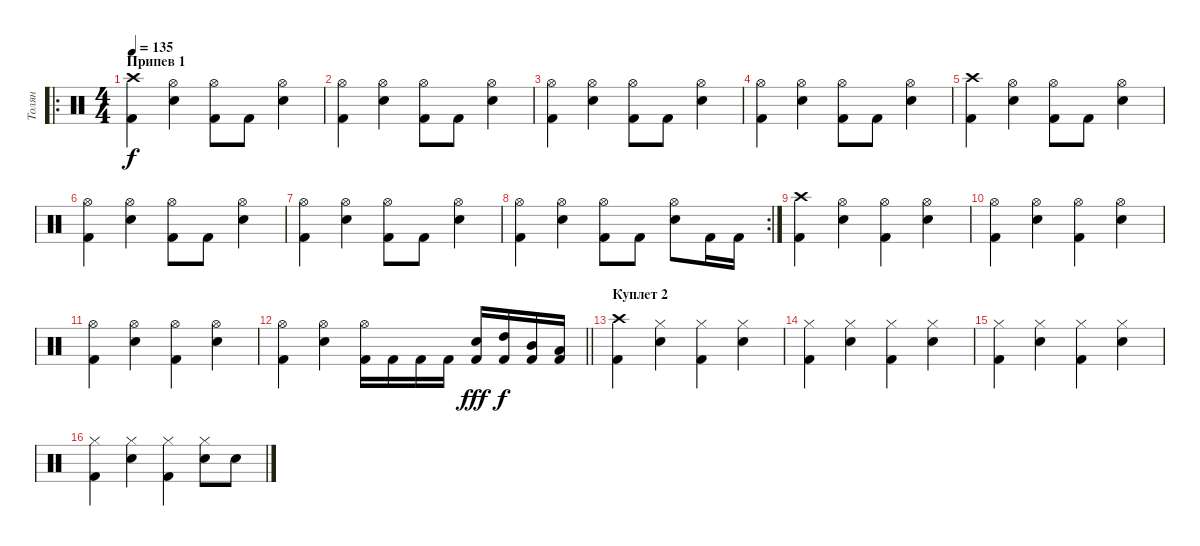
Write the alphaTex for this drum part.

\track ("Толян" "Толян") {instrument percussion}
\staff {score}
\articulation defaults
\ro
\ts (4 4)
\section ("" "Припев 1")
\tempo 135
\clef neutral
\ks c
("Crash high (hit)" "Kick (hit) 2").4{dy f} ("Hi-Hat (open)" "Electric Snare (hit)").4 ("Hi-Hat (open)" "Kick (hit) 2").8 "Kick (hit) 2".8 ("Hi-Hat (open)" "Electric Snare (hit)").4 |
("Hi-Hat (open)" "Kick (hit) 2").4 ("Hi-Hat (open)" "Electric Snare (hit)").4 ("Hi-Hat (open)" "Kick (hit) 2").8 "Kick (hit) 2".8 ("Hi-Hat (open)" "Electric Snare (hit)").4 |
("Hi-Hat (open)" "Kick (hit) 2").4 ("Hi-Hat (open)" "Electric Snare (hit)").4 ("Hi-Hat (open)" "Kick (hit) 2").8 "Kick (hit) 2".8 ("Hi-Hat (open)" "Electric Snare (hit)").4 |
("Hi-Hat (open)" "Kick (hit) 2").4 ("Hi-Hat (open)" "Electric Snare (hit)").4 ("Hi-Hat (open)" "Kick (hit) 2").8 "Kick (hit) 2".8 ("Hi-Hat (open)" "Electric Snare (hit)").4 |
("Crash high (hit)" "Kick (hit) 2").4 ("Hi-Hat (open)" "Electric Snare (hit)").4 ("Hi-Hat (open)" "Kick (hit) 2").8 "Kick (hit) 2".8 ("Hi-Hat (open)" "Electric Snare (hit)").4 |
("Hi-Hat (open)" "Kick (hit) 2").4 ("Hi-Hat (open)" "Electric Snare (hit)").4 ("Hi-Hat (open)" "Kick (hit) 2").8 "Kick (hit) 2".8 ("Hi-Hat (open)" "Electric Snare (hit)").4 |
("Hi-Hat (open)" "Kick (hit) 2").4 ("Hi-Hat (open)" "Electric Snare (hit)").4 ("Hi-Hat (open)" "Kick (hit) 2").8 "Kick (hit) 2".8 ("Hi-Hat (open)" "Electric Snare (hit)").4 |
\rc 2
("Hi-Hat (open)" "Kick (hit) 2").4 ("Hi-Hat (open)" "Electric Snare (hit)").4 ("Hi-Hat (open)" "Kick (hit) 2").8 "Kick (hit) 2".8 ("Hi-Hat (open)" "Electric Snare (hit)").8 "Kick (hit) 2".16 "Kick (hit) 2".16 |
("Crash high (hit)" "Kick (hit) 2").4 ("Hi-Hat (open)" "Electric Snare (hit)").4 ("Hi-Hat (open)" "Kick (hit) 2").4 ("Hi-Hat (open)" "Electric Snare (hit)").4 |
("Hi-Hat (open)" "Kick (hit) 2").4 ("Hi-Hat (open)" "Electric Snare (hit)").4 ("Hi-Hat (open)" "Kick (hit) 2").4 ("Hi-Hat (open)" "Electric Snare (hit)").4 |
("Hi-Hat (open)" "Kick (hit) 2").4 ("Hi-Hat (open)" "Electric Snare (hit)").4 ("Hi-Hat (open)" "Kick (hit) 2").4 ("Hi-Hat (open)" "Electric Snare (hit)").4 |
\barLineRight lightlight
("Hi-Hat (open)" "Kick (hit) 2").4 ("Hi-Hat (open)" "Electric Snare (hit)").4 ("Hi-Hat (open)" "Kick (hit) 2").16 "Kick (hit) 2".16 "Kick (hit) 2".16 "Kick (hit) 2".16 ("Electric Snare (hit)" "Kick (hit) 2").16{dy fff} ("High Tom (hit)" "Kick (hit) 2").16{dy f} ("Mid Tom (hit)" "Kick (hit) 2").16 ("Low Tom (hit)" "Kick (hit) 2").16 |
\section ("" "Куплет 2")
("Crash high (hit)" "Kick (hit) 2").4 ("Hi-Hat (closed)" "Electric Snare (hit)").4 ("Hi-Hat (closed)" "Kick (hit) 2").4 ("Hi-Hat (closed)" "Electric Snare (hit)").4 |
("Hi-Hat (closed)" "Kick (hit) 2").4 ("Hi-Hat (closed)" "Electric Snare (hit)").4 ("Hi-Hat (closed)" "Kick (hit) 2").4 ("Hi-Hat (closed)" "Electric Snare (hit)").4 |
("Hi-Hat (closed)" "Kick (hit) 2").4 ("Hi-Hat (closed)" "Electric Snare (hit)").4 ("Hi-Hat (closed)" "Kick (hit) 2").4 ("Hi-Hat (closed)" "Electric Snare (hit)").4 |
("Hi-Hat (closed)" "Kick (hit) 2").4 ("Hi-Hat (closed)" "Electric Snare (hit)").4 ("Hi-Hat (closed)" "Kick (hit) 2").4 ("Hi-Hat (closed)" "Electric Snare (hit)").8 "Electric Snare (hit)".8
